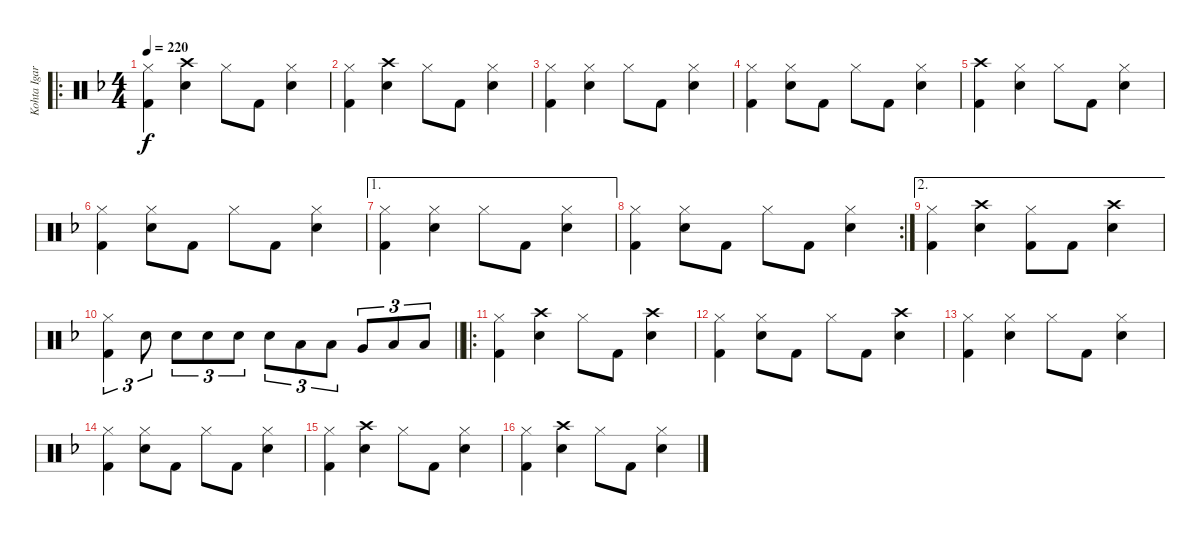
\track ("Kohta Igarashi" "Kohta Igar") {instrument percussion}
\staff {score}
\articulation defaults
\ro
\ts (4 4)
\tempo 220
\clef neutral
\ks f
("Hi-Hat (closed)" "Kick (hit) 2").4{dy f} ("Crash high (hit)" "Electric Snare (hit)").4 "Hi-Hat (closed)".8 "Kick (hit) 2".8 ("Hi-Hat (closed)" "Electric Snare (hit)").4 |
("Hi-Hat (closed)" "Kick (hit) 2").4 ("Crash high (hit)" "Electric Snare (hit)").4 "Hi-Hat (closed)".8 "Kick (hit) 2".8 ("Hi-Hat (closed)" "Electric Snare (hit)").4 |
("Hi-Hat (closed)" "Kick (hit) 2").4 ("Hi-Hat (closed)" "Electric Snare (hit)").4 "Hi-Hat (closed)".8 "Kick (hit) 2".8 ("Hi-Hat (closed)" "Electric Snare (hit)").4 |
("Hi-Hat (closed)" "Kick (hit) 2").4 ("Hi-Hat (closed)" "Electric Snare (hit)").8 "Kick (hit) 2".8 "Hi-Hat (closed)".8 "Kick (hit) 2".8 ("Hi-Hat (closed)" "Electric Snare (hit)").4 |
("Crash high (hit)" "Kick (hit) 2").4 ("Hi-Hat (closed)" "Electric Snare (hit)").4 "Hi-Hat (closed)".8 "Kick (hit) 2".8 ("Hi-Hat (closed)" "Electric Snare (hit)").4 |
("Hi-Hat (closed)" "Kick (hit) 2").4 ("Hi-Hat (closed)" "Electric Snare (hit)").8 "Kick (hit) 2".8 "Hi-Hat (closed)".8 "Kick (hit) 2".8 ("Hi-Hat (closed)" "Electric Snare (hit)").4 |
\ae 1
("Hi-Hat (closed)" "Kick (hit) 2").4 ("Hi-Hat (closed)" "Electric Snare (hit)").4 "Hi-Hat (closed)".8 "Kick (hit) 2".8 ("Hi-Hat (closed)" "Electric Snare (hit)").4 |
\rc 2
("Hi-Hat (closed)" "Kick (hit) 2").4 ("Hi-Hat (closed)" "Electric Snare (hit)").8 "Kick (hit) 2".8 "Hi-Hat (closed)".8 "Kick (hit) 2".8 ("Hi-Hat (closed)" "Electric Snare (hit)").4 |
\ae 2
("Hi-Hat (closed)" "Kick (hit) 2").4 ("Crash high (hit)" "Electric Snare (hit)").4 ("Hi-Hat (closed)" "Kick (hit) 2").8 "Kick (hit) 2".8 ("Crash high (hit)" "Electric Snare (hit)").4 |
\barLineRight lightlight
("Hi-Hat (closed)" "Kick (hit) 2").4{tu (3 2)} "Electric Snare (hit)".8{tu (3 2)} "Electric Snare (hit)".8{tu (3 2)} "Electric Snare (hit)".8{tu (3 2)} "Electric Snare (hit)".8{tu (3 2)} "Electric Snare (hit)".8{tu (3 2)} "Low Tom (hit)".8{tu (3 2)} "Low Tom (hit)".8{tu (3 2)} "Very Low Tom (hit)".8{tu (3 2)} "Low Floor Tom (hit)".8{tu (3 2)} "Low Floor Tom (hit)".8{tu (3 2)} |
\ro
("Hi-Hat (closed)" "Kick (hit) 2").4 ("Crash high (hit)" "Electric Snare (hit)").4 "Hi-Hat (closed)".8 "Kick (hit) 2".8 ("Crash high (hit)" "Electric Snare (hit)").4 |
("Hi-Hat (closed)" "Kick (hit) 2").4 ("Hi-Hat (closed)" "Electric Snare (hit)").8 "Kick (hit) 2".8 "Hi-Hat (closed)".8 "Kick (hit) 2".8 ("Crash high (hit)" "Electric Snare (hit)").4 |
("Hi-Hat (closed)" "Kick (hit) 2").4 ("Hi-Hat (closed)" "Electric Snare (hit)").4 "Hi-Hat (closed)".8 "Kick (hit) 2".8 ("Hi-Hat (closed)" "Electric Snare (hit)").4 |
("Hi-Hat (closed)" "Kick (hit) 2").4 ("Hi-Hat (closed)" "Electric Snare (hit)").8 "Kick (hit) 2".8 "Hi-Hat (closed)".8 "Kick (hit) 2".8 ("Hi-Hat (closed)" "Electric Snare (hit)").4 |
("Hi-Hat (closed)" "Kick (hit) 2").4 ("Crash high (hit)" "Electric Snare (hit)").4 "Hi-Hat (closed)".8 "Kick (hit) 2".8 ("Hi-Hat (closed)" "Electric Snare (hit)").4 |
("Hi-Hat (closed)" "Kick (hit) 2").4 ("Crash high (hit)" "Electric Snare (hit)").4 "Hi-Hat (closed)".8 "Kick (hit) 2".8 ("Hi-Hat (closed)" "Electric Snare (hit)").4
